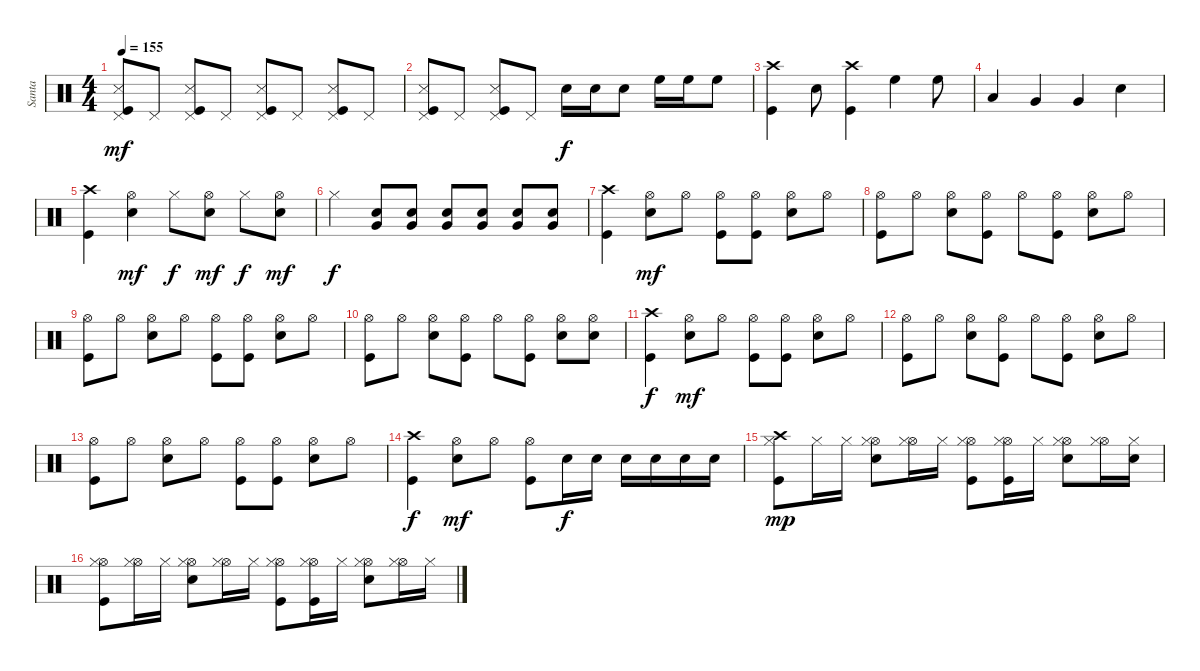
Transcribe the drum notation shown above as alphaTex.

\track ("Santa" "Santa") {instrument percussion}
\staff {score}
\articulation defaults
\ts (4 4)
\tempo 155
\clef neutral
\ks c
("Kick (hit)" "Snare (side stick) 3" "Pedal Hi-Hat (hit)").8{dy mf} "Pedal Hi-Hat (hit)".8 ("Kick (hit)" "Snare (side stick) 3" "Pedal Hi-Hat (hit)").8 "Pedal Hi-Hat (hit)".8 ("Kick (hit)" "Snare (side stick) 3" "Pedal Hi-Hat (hit)").8 "Pedal Hi-Hat (hit)".8 ("Kick (hit)" "Snare (side stick) 3" "Pedal Hi-Hat (hit)").8 "Pedal Hi-Hat (hit)".8 |
("Kick (hit)" "Snare (side stick) 3" "Pedal Hi-Hat (hit)").8 "Pedal Hi-Hat (hit)".8 ("Kick (hit)" "Snare (side stick) 3" "Pedal Hi-Hat (hit)").8 "Pedal Hi-Hat (hit)".8 "Snare (hit) 2".16{dy f} "Snare (hit) 2".16 "Snare (hit) 2".8 "High Floor Tom (hit)".16 "High Floor Tom (hit)".16 "High Floor Tom (hit)".8 |
("Kick (hit)" "Crash high (hit)").4 "Snare (hit) 2".8 ("Crash high (hit)" "Kick (hit)").4 "High Floor Tom (hit)".4 "High Floor Tom (hit)".8 |
"Low Tom (hit)".4 "Very Low Tom (hit)".4 "Very Low Tom (hit)".4 "Snare (hit) 2".4 |
("Kick (hit)" "Crash high (hit)").4 ("Snare (hit) 2" "Hi-Hat (open)").4{dy mf} "Hi-Hat (closed)".8{dy f} ("Snare (hit) 2" "Hi-Hat (open)").8{dy mf} "Hi-Hat (closed)".8{dy f} ("Snare (hit) 2" "Hi-Hat (open)").8{dy mf} |
"Hi-Hat (closed)".4{dy f} ("Snare (hit) 2" "Very Low Tom (hit)").8 ("Snare (hit) 2" "Very Low Tom (hit)").8 ("Snare (hit) 2" "Very Low Tom (hit)").8 ("Snare (hit) 2" "Very Low Tom (hit)").8 ("Snare (hit) 2" "Very Low Tom (hit)").8 ("Snare (hit) 2" "Very Low Tom (hit)").8 |
("Kick (hit)" "Crash high (hit)").4 ("Snare (hit) 2" "Hi-Hat (open)").8{dy mf} "Hi-Hat (open)".8 ("Kick (hit)" "Hi-Hat (open)").8 ("Kick (hit)" "Hi-Hat (open)").8 ("Snare (hit) 2" "Hi-Hat (open)").8 "Hi-Hat (open)".8 |
("Kick (hit)" "Hi-Hat (open)").8 "Hi-Hat (open)".8 ("Snare (hit) 2" "Hi-Hat (open)").8 ("Kick (hit)" "Hi-Hat (open)").8 "Hi-Hat (open)".8 ("Kick (hit)" "Hi-Hat (open)").8 ("Snare (hit) 2" "Hi-Hat (open)").8 "Hi-Hat (open)".8 |
("Kick (hit)" "Hi-Hat (open)").8 "Hi-Hat (open)".8 ("Snare (hit) 2" "Hi-Hat (open)").8 "Hi-Hat (open)".8 ("Kick (hit)" "Hi-Hat (open)").8 ("Kick (hit)" "Hi-Hat (open)").8 ("Snare (hit) 2" "Hi-Hat (open)").8 "Hi-Hat (open)".8 |
("Kick (hit)" "Hi-Hat (open)").8 "Hi-Hat (open)".8 ("Snare (hit) 2" "Hi-Hat (open)").8 ("Kick (hit)" "Hi-Hat (open)").8 "Hi-Hat (open)".8 ("Kick (hit)" "Hi-Hat (open)").8 ("Snare (hit) 2" "Hi-Hat (open)").8 ("Snare (hit) 2" "Hi-Hat (open)").8 |
("Kick (hit)" "Crash high (hit)").4{dy f} ("Snare (hit) 2" "Hi-Hat (open)").8{dy mf} "Hi-Hat (open)".8 ("Kick (hit)" "Hi-Hat (open)").8 ("Kick (hit)" "Hi-Hat (open)").8 ("Snare (hit) 2" "Hi-Hat (open)").8 "Hi-Hat (open)".8 |
("Kick (hit)" "Hi-Hat (open)").8 "Hi-Hat (open)".8 ("Snare (hit) 2" "Hi-Hat (open)").8 ("Kick (hit)" "Hi-Hat (open)").8 "Hi-Hat (open)".8 ("Kick (hit)" "Hi-Hat (open)").8 ("Snare (hit) 2" "Hi-Hat (open)").8 "Hi-Hat (open)".8 |
("Kick (hit)" "Hi-Hat (open)").8 "Hi-Hat (open)".8 ("Hi-Hat (open)" "Snare (hit) 2").8 "Hi-Hat (open)".8 ("Kick (hit)" "Hi-Hat (open)").8 ("Kick (hit)" "Hi-Hat (open)").8 ("Hi-Hat (open)" "Snare (hit) 2").8 "Hi-Hat (open)".8 |
("Kick (hit)" "Crash high (hit)").4{dy f} ("Hi-Hat (open)" "Snare (hit) 2").8{dy mf} "Hi-Hat (open)".8 ("Kick (hit)" "Hi-Hat (open)").8 "Snare (hit) 2".16{dy f} "Snare (hit) 2".16 "Snare (hit) 2".16 "Snare (hit) 2".16 "Snare (hit) 2".16 "Snare (hit) 2".16 |
("Kick (hit)" "Crash high (hit)" "Hi-Hat (closed)").8{dy mp} "Hi-Hat (closed)".16 "Hi-Hat (closed)".16 ("Snare (hit) 2" "Hi-Hat (open)" "Hi-Hat (closed)").8 ("Hi-Hat (open)" "Hi-Hat (closed)").16 "Hi-Hat (closed)".16 ("Kick (hit)" "Hi-Hat (open)" "Hi-Hat (closed)").8 ("Kick (hit)" "Hi-Hat (open)" "Hi-Hat (closed)").16 "Hi-Hat (closed)".16 ("Snare (hit) 2" "Hi-Hat (open)" "Hi-Hat (closed)").8 ("Hi-Hat (open)" "Hi-Hat (closed)").16 ("Snare (hit) 2" "Hi-Hat (closed)").16 |
("Kick (hit)" "Hi-Hat (open)" "Hi-Hat (closed)").8 ("Hi-Hat (open)" "Hi-Hat (closed)").16 "Hi-Hat (closed)".16 ("Snare (hit) 2" "Hi-Hat (open)" "Hi-Hat (closed)").8 ("Hi-Hat (open)" "Hi-Hat (closed)").16 "Hi-Hat (closed)".16 ("Kick (hit)" "Hi-Hat (open)" "Hi-Hat (closed)").8 ("Kick (hit)" "Hi-Hat (open)" "Hi-Hat (closed)").16 "Hi-Hat (closed)".16 ("Snare (hit) 2" "Hi-Hat (open)" "Hi-Hat (closed)").8 ("Hi-Hat (open)" "Hi-Hat (closed)").16 "Hi-Hat (closed)".16
